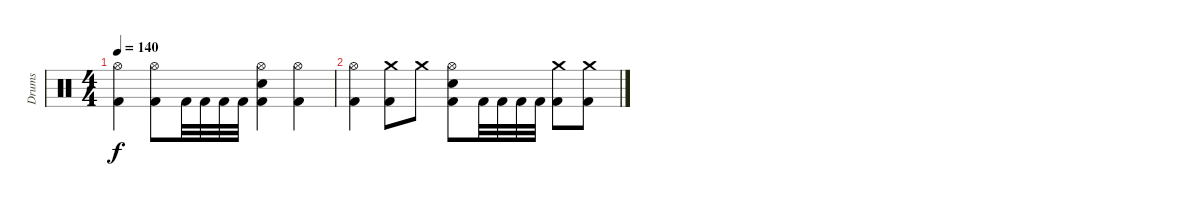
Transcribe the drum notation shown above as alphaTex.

\track ("Drums" "Drums") {instrument percussion}
\staff {score}
\articulation defaults
\ts (4 4)
\tempo 140
\clef neutral
\ks c
("Hi-Hat (open)" "Kick (hit) 2").4{dy f} ("Hi-Hat (open)" "Kick (hit) 2").8 "Kick (hit) 2".32 "Kick (hit) 2".32 "Kick (hit) 2".32 "Kick (hit) 2".32 ("Hi-Hat (open)" "Snare (hit) 2" "Kick (hit) 2").4 ("Hi-Hat (open)" "Kick (hit) 2").4 |
("Hi-Hat (open)" "Kick (hit) 2").4 ("Crash medium (hit)" "Kick (hit) 2").8 "Crash medium (hit)".8 ("Hi-Hat (open)" "Snare (hit) 2" "Kick (hit) 2").8 "Kick (hit) 2".32 "Kick (hit) 2".32 "Kick (hit) 2".32 "Kick (hit) 2".32 ("Crash medium (hit)" "Kick (hit) 2").8 ("Crash medium (hit)" "Kick (hit) 2").8
